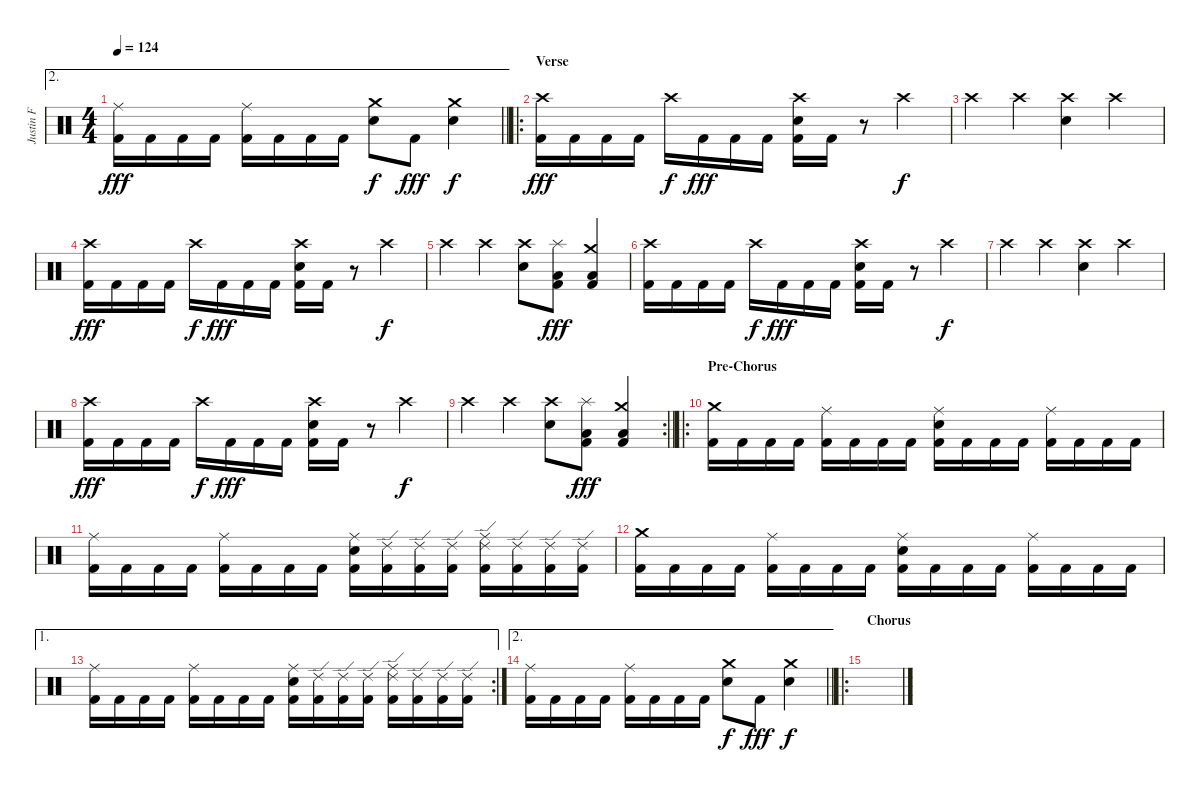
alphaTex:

\track ("Justin F" "Justin F") {instrument percussion}
\staff {score}
\articulation defaults
\ae 2
\ts (4 4)
\tempo 124
\clef neutral
\barLineRight lightlight
\ks c
("Ride (middle)" "Kick (hit) 2").16{dy fff} "Kick (hit) 2".16 "Kick (hit) 2".16 "Kick (hit) 2".16 ("Ride (middle)" "Kick (hit) 2").16 "Kick (hit) 2".16 "Kick (hit) 2".16 "Kick (hit) 2".16 ("Crash medium (hit)" "Snare (hit) 2").8{dy f} "Kick (hit) 2".8{dy fff} ("Crash medium (hit)" "Snare (hit) 2").4{dy f} |
\ro
\section ("" "Verse")
("Crash high (hit)" "Kick (hit) 2").16{dy fff} "Kick (hit) 2".16 "Kick (hit) 2".16 "Kick (hit) 2".16 "Crash high (hit)".16{dy f} "Kick (hit) 2".16{dy fff} "Kick (hit) 2".16 "Kick (hit) 2".16 ("Crash high (hit)" "Snare (hit) 2" "Kick (hit) 2").16 "Kick (hit) 2".16 r.8 "Crash high (hit)".4{dy f} |
"Crash high (hit)".4 "Crash high (hit)".4 ("Crash high (hit)" "Snare (hit) 2").4 "Crash high (hit)".4 |
("Crash high (hit)" "Kick (hit) 2").16{dy fff} "Kick (hit) 2".16 "Kick (hit) 2".16 "Kick (hit) 2".16 "Crash high (hit)".16{dy f} "Kick (hit) 2".16{dy fff} "Kick (hit) 2".16 "Kick (hit) 2".16 ("Crash high (hit)" "Snare (hit) 2" "Kick (hit) 2").16 "Kick (hit) 2".16 r.8 "Crash high (hit)".4{dy f} |
"Crash high (hit)".4 "Crash high (hit)".4 ("Crash high (hit)" "Snare (hit) 2").8 ("Splash (hit)" "Low Tom (hit)" "Kick (hit) 2").8{dy fff} ("Crash medium (hit)" "Low Floor Tom (hit)" "Kick (hit) 2").4 |
("Crash high (hit)" "Kick (hit) 2").16 "Kick (hit) 2".16 "Kick (hit) 2".16 "Kick (hit) 2".16 "Crash high (hit)".16{dy f} "Kick (hit) 2".16{dy fff} "Kick (hit) 2".16 "Kick (hit) 2".16 ("Crash high (hit)" "Snare (hit) 2" "Kick (hit) 2").16 "Kick (hit) 2".16 r.8 "Crash high (hit)".4{dy f} |
"Crash high (hit)".4 "Crash high (hit)".4 ("Crash high (hit)" "Snare (hit) 2").4 "Crash high (hit)".4 |
("Crash high (hit)" "Kick (hit) 2").16{dy fff} "Kick (hit) 2".16 "Kick (hit) 2".16 "Kick (hit) 2".16 "Crash high (hit)".16{dy f} "Kick (hit) 2".16{dy fff} "Kick (hit) 2".16 "Kick (hit) 2".16 ("Crash high (hit)" "Snare (hit) 2" "Kick (hit) 2").16 "Kick (hit) 2".16 r.8 "Crash high (hit)".4{dy f} |
\rc 2
\barLineRight lightlight "Crash high (hit)".4 "Crash high (hit)".4
("Crash high (hit)" "Snare (hit) 2").8 ("Splash (hit)" "Low Tom (hit)" "Kick (hit) 2").8{dy fff} ("Crash medium (hit)" "Low Floor Tom (hit)" "Kick (hit) 2").4 |
\ro
\section ("" "Pre-Chorus")
("Crash medium (hit)" "Kick (hit) 2").16 "Kick (hit) 2".16 "Kick (hit) 2".16 "Kick (hit) 2".16 ("Ride (middle)" "Kick (hit) 2").16 "Kick (hit) 2".16 "Kick (hit) 2".16 "Kick (hit) 2".16 ("Ride (middle)" "Snare (hit) 2" "Kick (hit) 2").16 "Kick (hit) 2".16 "Kick (hit) 2".16 "Kick (hit) 2".16 ("Ride (middle)" "Kick (hit) 2").16 "Kick (hit) 2".16 "Kick (hit) 2".16 "Kick (hit) 2".16 |
("Ride (middle)" "Kick (hit) 2").16 "Kick (hit) 2".16 "Kick (hit) 2".16 "Kick (hit) 2".16 ("Ride (middle)" "Kick (hit) 2").16 "Kick (hit) 2".16 "Kick (hit) 2".16 "Kick (hit) 2".16 ("Ride (middle)" "Snare (hit) 2" "Kick (hit) 2").16 ("Ride (edge) 2" "Kick (hit) 2").16 ("Ride (edge) 2" "Kick (hit) 2").16 ("Ride (edge) 2" "Kick (hit) 2").16 ("Ride (middle)" "Ride (edge) 2" "Kick (hit) 2").16 ("Ride (edge) 2" "Kick (hit) 2").16 ("Ride (edge) 2" "Kick (hit) 2").16 ("Ride (edge) 2" "Kick (hit) 2").16 |
("Crash medium (hit)" "Kick (hit) 2").16 "Kick (hit) 2".16 "Kick (hit) 2".16 "Kick (hit) 2".16 ("Ride (middle)" "Kick (hit) 2").16 "Kick (hit) 2".16 "Kick (hit) 2".16 "Kick (hit) 2".16 ("Ride (middle)" "Snare (hit) 2" "Kick (hit) 2").16 "Kick (hit) 2".16 "Kick (hit) 2".16 "Kick (hit) 2".16 ("Ride (middle)" "Kick (hit) 2").16 "Kick (hit) 2".16 "Kick (hit) 2".16 "Kick (hit) 2".16 |
\ae 1
\rc 2
("Ride (middle)" "Kick (hit) 2").16 "Kick (hit) 2".16 "Kick (hit) 2".16 "Kick (hit) 2".16 ("Ride (middle)" "Kick (hit) 2").16 "Kick (hit) 2".16 "Kick (hit) 2".16 "Kick (hit) 2".16 ("Ride (middle)" "Snare (hit) 2" "Kick (hit) 2").16 ("Ride (edge) 2" "Kick (hit) 2").16 ("Ride (edge) 2" "Kick (hit) 2").16 ("Ride (edge) 2" "Kick (hit) 2").16 ("Ride (middle)" "Ride (edge) 2" "Kick (hit) 2").16 ("Ride (edge) 2" "Kick (hit) 2").16 ("Ride (edge) 2" "Kick (hit) 2").16 ("Ride (edge) 2" "Kick (hit) 2").16 |
\ae 2
\barLineRight lightlight
("Ride (middle)" "Kick (hit) 2").16 "Kick (hit) 2".16 "Kick (hit) 2".16 "Kick (hit) 2".16 ("Ride (middle)" "Kick (hit) 2").16 "Kick (hit) 2".16 "Kick (hit) 2".16 "Kick (hit) 2".16 ("Crash medium (hit)" "Snare (hit) 2").8{dy f} "Kick (hit) 2".8{dy fff} ("Crash medium (hit)" "Snare (hit) 2").4{dy f} |
\ro
\section ("" "Chorus")
